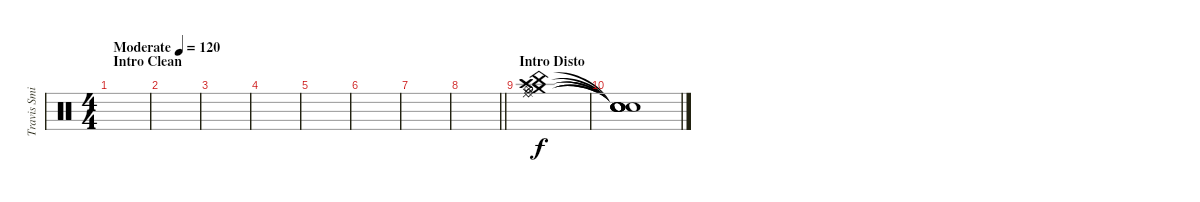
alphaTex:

\track ("Travis Smith" "Travis Smi") {instrument percussion}
\staff {score}
\articulation defaults
\ts (4 4)
\section ("" "Intro Clean")
\tempo (120 "Moderate")
\clef neutral
\ks c
|
|
|
|
|
|
|
\barLineRight lightlight
|
\section ("" "Intro Disto")
("Crash medium (hit)" "Ride (bell)" "China (hit)" "Ride (middle)" "Crash high (hit)" "Hi-Hat (open)").1 |
("Snare (hit)"{t} "Snare (hit)"{t} "Snare (hit)"{t} "Snare (hit)"{t} "Snare (hit)"{t} "Snare (hit)"{t}).1
